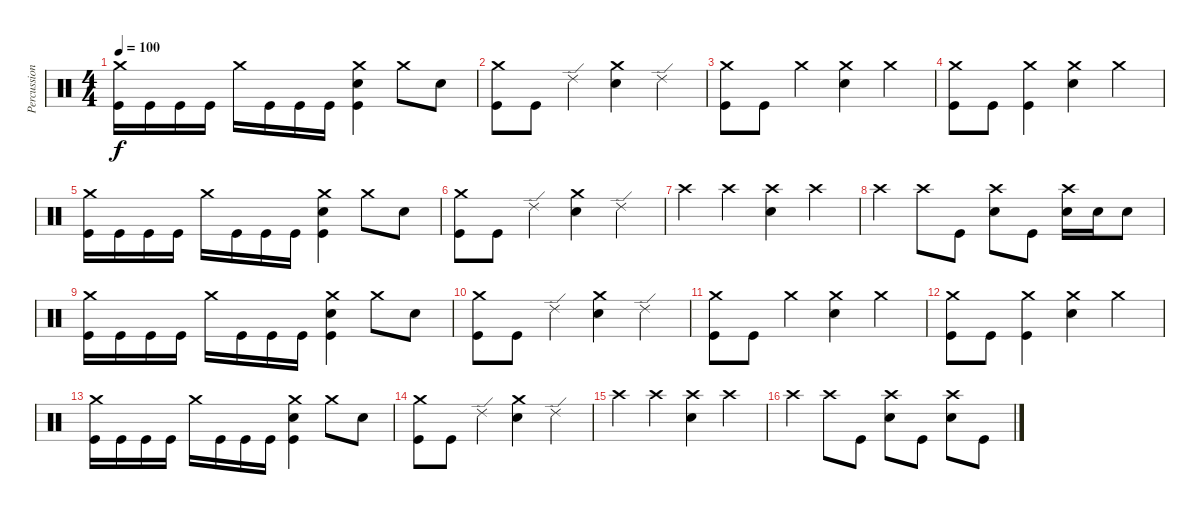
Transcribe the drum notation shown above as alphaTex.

\track ("Percussions" "Percussion") {instrument percussion}
\staff {score}
\articulation defaults
\ts (4 4)
\tempo 100
\clef neutral
\ks c
("Crash medium (hit)" "Kick (hit)").16{dy f} "Kick (hit)".16 "Kick (hit)".16 "Kick (hit)".16 "Crash medium (hit)".16 "Kick (hit)".16 "Kick (hit)".16 "Kick (hit)".16 ("Crash medium (hit)" "Snare (hit) 2" "Kick (hit)").4 "Crash medium (hit)".8 "Snare (hit) 2".8 |
("Crash medium (hit)" "Kick (hit)").8 "Kick (hit)".8 "Ride (edge) 2".4 ("Crash medium (hit)" "Snare (hit) 2").4 "Ride (edge) 2".4 |
("Crash medium (hit)" "Kick (hit)").8 "Kick (hit)".8 "Crash medium (hit)".4 ("Crash medium (hit)" "Snare (hit) 2").4 "Crash medium (hit)".4 |
("Crash medium (hit)" "Kick (hit)").8 "Kick (hit)".8 ("Crash medium (hit)" "Kick (hit)").4 ("Crash medium (hit)" "Snare (hit) 2").4 "Crash medium (hit)".4 |
("Crash medium (hit)" "Kick (hit)").16 "Kick (hit)".16 "Kick (hit)".16 "Kick (hit)".16 "Crash medium (hit)".16 "Kick (hit)".16 "Kick (hit)".16 "Kick (hit)".16 ("Crash medium (hit)" "Snare (hit) 2" "Kick (hit)").4 "Crash medium (hit)".8 "Snare (hit) 2".8 |
("Crash medium (hit)" "Kick (hit)").8 "Kick (hit)".8 "Ride (edge) 2".4 ("Crash medium (hit)" "Snare (hit) 2").4 "Ride (edge) 2".4 |
"Crash high (hit)".4 "Crash high (hit)".4 ("Crash high (hit)" "Snare (hit) 2").4 "Crash high (hit)".4 |
"Crash high (hit)".4 "Crash high (hit)".8 "Kick (hit)".8 ("Crash high (hit)" "Snare (hit) 2").8 "Kick (hit)".8 ("Crash high (hit)" "Snare (hit) 2").16 "Snare (hit) 2".16 "Snare (hit) 2".8 |
("Crash medium (hit)" "Kick (hit)").16 "Kick (hit)".16 "Kick (hit)".16 "Kick (hit)".16 "Crash medium (hit)".16 "Kick (hit)".16 "Kick (hit)".16 "Kick (hit)".16 ("Crash medium (hit)" "Snare (hit) 2" "Kick (hit)").4 "Crash medium (hit)".8 "Snare (hit) 2".8 |
("Crash medium (hit)" "Kick (hit)").8 "Kick (hit)".8 "Ride (edge) 2".4 ("Crash medium (hit)" "Snare (hit) 2").4 "Ride (edge) 2".4 |
("Crash medium (hit)" "Kick (hit)").8 "Kick (hit)".8 "Crash medium (hit)".4 ("Crash medium (hit)" "Snare (hit) 2").4 "Crash medium (hit)".4 |
("Crash medium (hit)" "Kick (hit)").8 "Kick (hit)".8 ("Crash medium (hit)" "Kick (hit)").4 ("Crash medium (hit)" "Snare (hit) 2").4 "Crash medium (hit)".4 |
("Crash medium (hit)" "Kick (hit)").16 "Kick (hit)".16 "Kick (hit)".16 "Kick (hit)".16 "Crash medium (hit)".16 "Kick (hit)".16 "Kick (hit)".16 "Kick (hit)".16 ("Crash medium (hit)" "Snare (hit) 2" "Kick (hit)").4 "Crash medium (hit)".8 "Snare (hit) 2".8 |
("Crash medium (hit)" "Kick (hit)").8 "Kick (hit)".8 "Ride (edge) 2".4 ("Crash medium (hit)" "Snare (hit) 2").4 "Ride (edge) 2".4 |
"Crash high (hit)".4 "Crash high (hit)".4 ("Crash high (hit)" "Snare (hit) 2").4 "Crash high (hit)".4 |
"Crash high (hit)".4 "Crash high (hit)".8 "Kick (hit)".8 ("Crash high (hit)" "Snare (hit) 2").8 "Kick (hit)".8 ("Crash high (hit)" "Snare (hit) 2").8 "Kick (hit)".8
